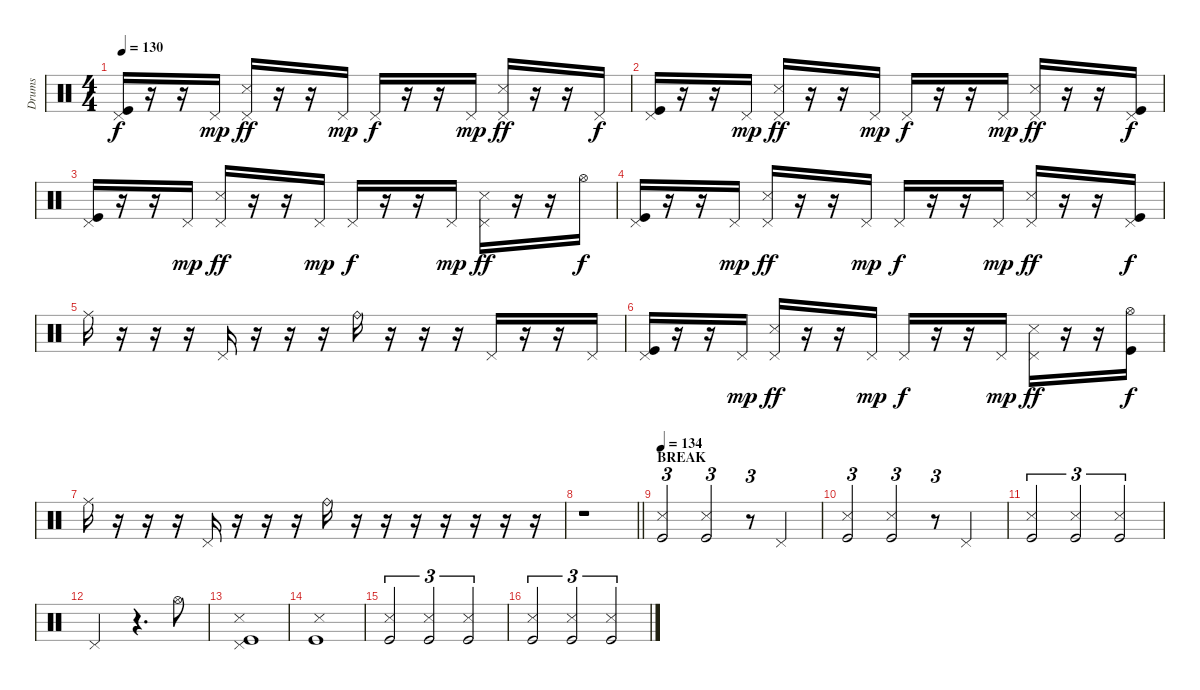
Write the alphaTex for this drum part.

\track ("Drums" "Drums") {instrument percussion}
\staff {score}
\articulation defaults
\ts (4 4)
\tempo 130
\clef neutral
\ks c
("Pedal Hi-Hat (hit)" "Kick (hit)").16{dy f} r.16 r.16 "Pedal Hi-Hat (hit)".16{dy mp} ("Pedal Hi-Hat (hit)" "Snare (side stick) 3").16{dy ff} r.16 r.16 "Pedal Hi-Hat (hit)".16{dy mp} "Pedal Hi-Hat (hit)".16{dy f} r.16 r.16 "Pedal Hi-Hat (hit)".16{dy mp} ("Pedal Hi-Hat (hit)" "Snare (side stick) 3").16{dy ff} r.16 r.16 "Pedal Hi-Hat (hit)".16{dy f} |
("Pedal Hi-Hat (hit)" "Kick (hit)").16 r.16 r.16 "Pedal Hi-Hat (hit)".16{dy mp} ("Pedal Hi-Hat (hit)" "Snare (side stick) 3").16{dy ff} r.16 r.16 "Pedal Hi-Hat (hit)".16{dy mp} "Pedal Hi-Hat (hit)".16{dy f} r.16 r.16 "Pedal Hi-Hat (hit)".16{dy mp} ("Pedal Hi-Hat (hit)" "Snare (side stick) 3").16{dy ff} r.16 r.16 ("Pedal Hi-Hat (hit)" "Kick (hit)").16{dy f} |
("Pedal Hi-Hat (hit)" "Kick (hit)").16 r.16 r.16 "Pedal Hi-Hat (hit)".16{dy mp} ("Pedal Hi-Hat (hit)" "Snare (side stick) 3").16{dy ff} r.16 r.16 "Pedal Hi-Hat (hit)".16{dy mp} "Pedal Hi-Hat (hit)".16{dy f} r.16 r.16 "Pedal Hi-Hat (hit)".16{dy mp} ("Pedal Hi-Hat (hit)" "Snare (side stick) 3").16{dy ff} r.16 r.16 "Hi-Hat (open)".16{dy f} |
("Pedal Hi-Hat (hit)" "Kick (hit)").16 r.16 r.16 "Pedal Hi-Hat (hit)".16{dy mp} ("Pedal Hi-Hat (hit)" "Snare (side stick) 3").16{dy ff} r.16 r.16 "Pedal Hi-Hat (hit)".16{dy mp} "Pedal Hi-Hat (hit)".16{dy f} r.16 r.16 "Pedal Hi-Hat (hit)".16{dy mp} ("Pedal Hi-Hat (hit)" "Snare (side stick) 3").16{dy ff} r.16 r.16 ("Pedal Hi-Hat (hit)" "Kick (hit)").16{dy f} |
"Ride (middle)".16 r.16 r.16 r.16 "Pedal Hi-Hat (hit)".16 r.16 r.16 r.16 "Ride (bell)".16 r.16 r.16 r.16 "Pedal Hi-Hat (hit)".16 r.16 r.16 "Pedal Hi-Hat (hit)".16 |
("Pedal Hi-Hat (hit)" "Kick (hit)").16 r.16 r.16 "Pedal Hi-Hat (hit)".16{dy mp} ("Pedal Hi-Hat (hit)" "Snare (side stick) 3").16{dy ff} r.16 r.16 "Pedal Hi-Hat (hit)".16{dy mp} "Pedal Hi-Hat (hit)".16{dy f} r.16 r.16 "Pedal Hi-Hat (hit)".16{dy mp} ("Pedal Hi-Hat (hit)" "Snare (side stick) 3").16{dy ff} r.16 r.16 ("Hi-Hat (open)" "Kick (hit)").16{dy f} |
"Ride (middle)".16 r.16 r.16 r.16 "Pedal Hi-Hat (hit)".16 r.16 r.16 r.16 "Ride (bell)".16 r.16 r.16 r.16 r.16 r.16 r.16 r.16 |
\barLineRight lightlight
r.1 |
\section ("" "BREAK")
\tempo 134
("Snare (side stick) 3" "Kick (hit)").2{tu (3 2)} ("Snare (side stick) 3" "Kick (hit)").2{tu (3 2)} r.8{tu (3 2)} "Pedal Hi-Hat (hit)".4 |
("Snare (side stick) 3" "Kick (hit)").2{tu (3 2)} ("Snare (side stick) 3" "Kick (hit)").2{tu (3 2)} r.8{tu (3 2)} "Pedal Hi-Hat (hit)".4 |
("Snare (side stick) 3" "Kick (hit)").2{tu (3 2)} ("Snare (side stick) 3" "Kick (hit)").2{tu (3 2)} ("Snare (side stick) 3" "Kick (hit)").2{tu (3 2)} |
"Pedal Hi-Hat (hit)".2 r.4{d} "Hi-Hat (open)".8 |
("Pedal Hi-Hat (hit)" "Snare (side stick) 3" "Kick (hit)").1 |
("Snare (side stick) 3" "Kick (hit)").1 |
("Snare (side stick) 3" "Kick (hit)").2{tu (3 2)} ("Snare (side stick) 3" "Kick (hit)").2{tu (3 2)} ("Snare (side stick) 3" "Kick (hit)").2{tu (3 2)} |
("Snare (side stick) 3" "Kick (hit)").2{tu (3 2)} ("Snare (side stick) 3" "Kick (hit)").2{tu (3 2)} ("Snare (side stick) 3" "Kick (hit)").2{tu (3 2)}
